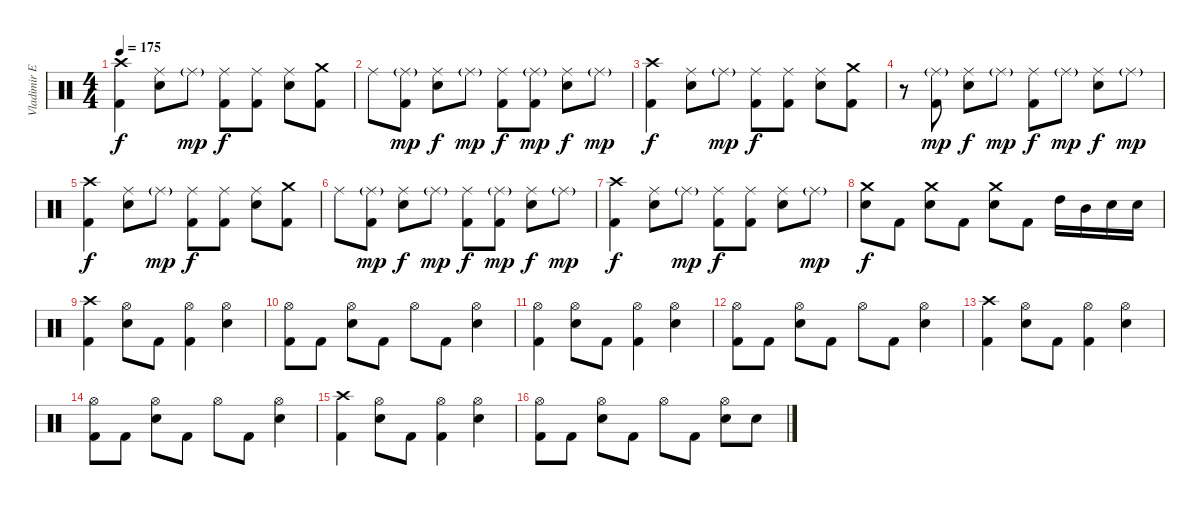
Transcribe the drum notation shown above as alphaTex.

\track ("Vladimir Ermakoff" "Vladimir E") {instrument percussion}
\staff {score}
\articulation defaults
\ts (4 4)
\tempo 175
\clef neutral
\ks c
("Crash high (hit)" "Kick (hit) 2").4{dy f} ("Ride (middle)" "Electric Snare (hit)").8 "Ride (middle)"{g}.8{dy mp} ("Ride (middle)" "Kick (hit) 2").8{dy f} ("Ride (middle)" "Kick (hit) 2").8 ("Ride (middle)" "Electric Snare (hit)").8 ("Crash medium (hit)" "Kick (hit) 2").8 |
"Ride (middle)".8 ("Ride (middle)"{g} "Kick (hit) 2").8{dy mp} ("Ride (middle)" "Electric Snare (hit)").8{dy f} "Ride (middle)"{g}.8{dy mp} ("Ride (middle)" "Kick (hit) 2").8{dy f} ("Ride (middle)"{g} "Kick (hit) 2").8{dy mp} ("Ride (middle)" "Electric Snare (hit)").8{dy f} "Ride (middle)"{g}.8{dy mp} |
("Crash high (hit)" "Kick (hit) 2").4{dy f} ("Ride (middle)" "Electric Snare (hit)").8 "Ride (middle)"{g}.8{dy mp} ("Ride (middle)" "Kick (hit) 2").8{dy f} ("Ride (middle)" "Kick (hit) 2").8 ("Ride (middle)" "Electric Snare (hit)").8 ("Crash medium (hit)" "Kick (hit) 2").8 |
r.8 ("Ride (middle)"{g} "Kick (hit) 2").8{dy mp} ("Ride (middle)" "Electric Snare (hit)").8{dy f} "Ride (middle)"{g}.8{dy mp} ("Ride (middle)" "Kick (hit) 2").8{dy f} "Ride (middle)"{g}.8{dy mp} ("Ride (middle)" "Electric Snare (hit)").8{dy f} "Ride (middle)"{g}.8{dy mp} |
("Crash high (hit)" "Kick (hit) 2").4{dy f} ("Ride (middle)" "Electric Snare (hit)").8 "Ride (middle)"{g}.8{dy mp} ("Ride (middle)" "Kick (hit) 2").8{dy f} ("Ride (middle)" "Kick (hit) 2").8 ("Ride (middle)" "Electric Snare (hit)").8 ("Crash medium (hit)" "Kick (hit) 2").8 |
"Ride (middle)".8 ("Ride (middle)"{g} "Kick (hit) 2").8{dy mp} ("Ride (middle)" "Electric Snare (hit)").8{dy f} "Ride (middle)"{g}.8{dy mp} ("Ride (middle)" "Kick (hit) 2").8{dy f} ("Ride (middle)"{g} "Kick (hit) 2").8{dy mp} ("Ride (middle)" "Electric Snare (hit)").8{dy f} "Ride (middle)"{g}.8{dy mp} |
("Crash high (hit)" "Kick (hit) 2").4{dy f} ("Ride (middle)" "Electric Snare (hit)").8 "Ride (middle)"{g}.8{dy mp} ("Ride (middle)" "Kick (hit) 2").8{dy f} ("Ride (middle)" "Kick (hit) 2").8 ("Ride (middle)" "Electric Snare (hit)").8 "Ride (middle)"{g}.8{dy mp} |
("Crash medium (hit)" "Electric Snare (hit)").8{dy f} "Kick (hit) 2".8 ("Crash medium (hit)" "Electric Snare (hit)").8 "Kick (hit) 2".8 ("Crash medium (hit)" "Electric Snare (hit)").8 "Kick (hit) 2".8 "High Tom (hit)".16 "Mid Tom (hit)".16 "Electric Snare (hit)".16 "Electric Snare (hit)".16 |
("Crash high (hit)" "Kick (hit) 2").4 ("Hi-Hat (open)" "Electric Snare (hit)").8 "Kick (hit) 2".8 ("Hi-Hat (open)" "Kick (hit) 2").4 ("Hi-Hat (open)" "Electric Snare (hit)").4 |
("Hi-Hat (open)" "Kick (hit) 2").8 "Kick (hit) 2".8 ("Hi-Hat (open)" "Electric Snare (hit)").8 "Kick (hit) 2".8 "Hi-Hat (open)".8 "Kick (hit) 2".8 ("Hi-Hat (open)" "Electric Snare (hit)").4 |
("Hi-Hat (open)" "Kick (hit) 2").4 ("Hi-Hat (open)" "Electric Snare (hit)").8 "Kick (hit) 2".8 ("Hi-Hat (open)" "Kick (hit) 2").4 ("Hi-Hat (open)" "Electric Snare (hit)").4 |
("Hi-Hat (open)" "Kick (hit) 2").8 "Kick (hit) 2".8 ("Hi-Hat (open)" "Electric Snare (hit)").8 "Kick (hit) 2".8 "Hi-Hat (open)".8 "Kick (hit) 2".8 ("Hi-Hat (open)" "Electric Snare (hit)").4 |
("Crash high (hit)" "Kick (hit) 2").4 ("Hi-Hat (open)" "Electric Snare (hit)").8 "Kick (hit) 2".8 ("Hi-Hat (open)" "Kick (hit) 2").4 ("Hi-Hat (open)" "Electric Snare (hit)").4 |
("Hi-Hat (open)" "Kick (hit) 2").8 "Kick (hit) 2".8 ("Hi-Hat (open)" "Electric Snare (hit)").8 "Kick (hit) 2".8 "Hi-Hat (open)".8 "Kick (hit) 2".8 ("Hi-Hat (open)" "Electric Snare (hit)").4 |
("Crash high (hit)" "Kick (hit) 2").4 ("Hi-Hat (open)" "Electric Snare (hit)").8 "Kick (hit) 2".8 ("Hi-Hat (open)" "Kick (hit) 2").4 ("Hi-Hat (open)" "Electric Snare (hit)").4 |
("Hi-Hat (open)" "Kick (hit) 2").8 "Kick (hit) 2".8 ("Hi-Hat (open)" "Electric Snare (hit)").8 "Kick (hit) 2".8 "Hi-Hat (open)".8 "Kick (hit) 2".8 ("Hi-Hat (open)" "Electric Snare (hit)").8 "Electric Snare (hit)".8
